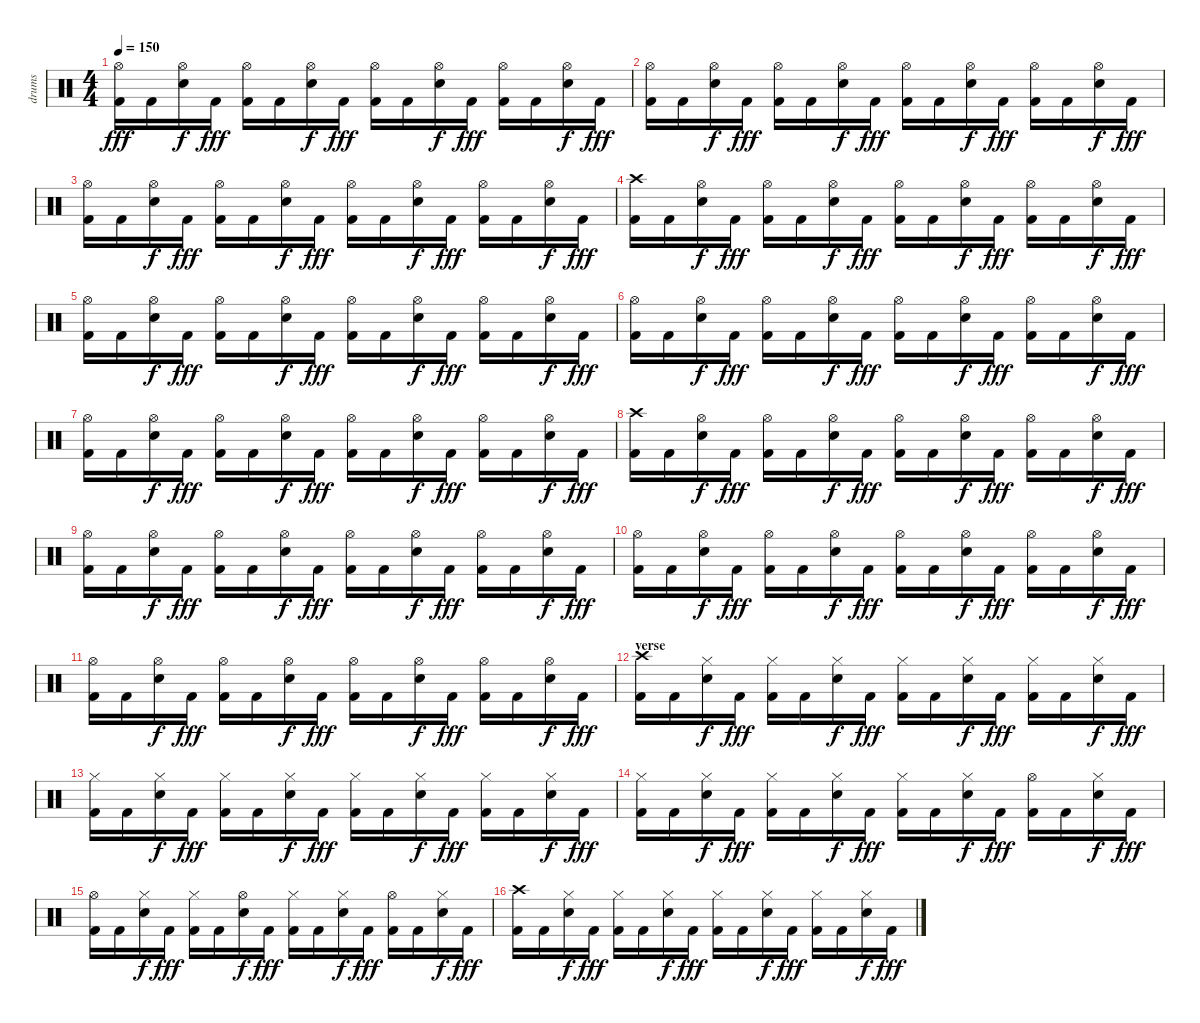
\track ("drums" "drums") {instrument percussion}
\staff {score}
\articulation defaults
\ts (4 4)
\tempo 150
\clef neutral
\ks c
("Hi-Hat (open)" "Kick (hit) 2").16{dy fff} "Kick (hit) 2".16 ("Hi-Hat (open)" "Snare (hit) 2").16{dy f} "Kick (hit) 2".16{dy fff} ("Hi-Hat (open)" "Kick (hit) 2").16 "Kick (hit) 2".16 ("Hi-Hat (open)" "Snare (hit) 2").16{dy f} "Kick (hit) 2".16{dy fff} ("Hi-Hat (open)" "Kick (hit) 2").16 "Kick (hit) 2".16 ("Hi-Hat (open)" "Snare (hit) 2").16{dy f} "Kick (hit) 2".16{dy fff} ("Hi-Hat (open)" "Kick (hit) 2").16 "Kick (hit) 2".16 ("Hi-Hat (open)" "Snare (hit) 2").16{dy f} "Kick (hit) 2".16{dy fff} |
("Hi-Hat (open)" "Kick (hit) 2").16 "Kick (hit) 2".16 ("Hi-Hat (open)" "Snare (hit) 2").16{dy f} "Kick (hit) 2".16{dy fff} ("Hi-Hat (open)" "Kick (hit) 2").16 "Kick (hit) 2".16 ("Hi-Hat (open)" "Snare (hit) 2").16{dy f} "Kick (hit) 2".16{dy fff} ("Hi-Hat (open)" "Kick (hit) 2").16 "Kick (hit) 2".16 ("Hi-Hat (open)" "Snare (hit) 2").16{dy f} "Kick (hit) 2".16{dy fff} ("Hi-Hat (open)" "Kick (hit) 2").16 "Kick (hit) 2".16 ("Hi-Hat (open)" "Snare (hit) 2").16{dy f} "Kick (hit) 2".16{dy fff} |
("Hi-Hat (open)" "Kick (hit) 2").16 "Kick (hit) 2".16 ("Hi-Hat (open)" "Snare (hit) 2").16{dy f} "Kick (hit) 2".16{dy fff} ("Hi-Hat (open)" "Kick (hit) 2").16 "Kick (hit) 2".16 ("Hi-Hat (open)" "Snare (hit) 2").16{dy f} "Kick (hit) 2".16{dy fff} ("Hi-Hat (open)" "Kick (hit) 2").16 "Kick (hit) 2".16 ("Hi-Hat (open)" "Snare (hit) 2").16{dy f} "Kick (hit) 2".16{dy fff} ("Hi-Hat (open)" "Kick (hit) 2").16 "Kick (hit) 2".16 ("Hi-Hat (open)" "Snare (hit) 2").16{dy f} "Kick (hit) 2".16{dy fff} |
("Crash high (hit)" "Kick (hit) 2").16 "Kick (hit) 2".16 ("Hi-Hat (open)" "Snare (hit) 2").16{dy f} "Kick (hit) 2".16{dy fff} ("Hi-Hat (open)" "Kick (hit) 2").16 "Kick (hit) 2".16 ("Hi-Hat (open)" "Snare (hit) 2").16{dy f} "Kick (hit) 2".16{dy fff} ("Hi-Hat (open)" "Kick (hit) 2").16 "Kick (hit) 2".16 ("Hi-Hat (open)" "Snare (hit) 2").16{dy f} "Kick (hit) 2".16{dy fff} ("Hi-Hat (open)" "Kick (hit) 2").16 "Kick (hit) 2".16 ("Hi-Hat (open)" "Snare (hit) 2").16{dy f} "Kick (hit) 2".16{dy fff} |
("Hi-Hat (open)" "Kick (hit) 2").16 "Kick (hit) 2".16 ("Hi-Hat (open)" "Snare (hit) 2").16{dy f} "Kick (hit) 2".16{dy fff} ("Hi-Hat (open)" "Kick (hit) 2").16 "Kick (hit) 2".16 ("Hi-Hat (open)" "Snare (hit) 2").16{dy f} "Kick (hit) 2".16{dy fff} ("Hi-Hat (open)" "Kick (hit) 2").16 "Kick (hit) 2".16 ("Hi-Hat (open)" "Snare (hit) 2").16{dy f} "Kick (hit) 2".16{dy fff} ("Hi-Hat (open)" "Kick (hit) 2").16 "Kick (hit) 2".16 ("Hi-Hat (open)" "Snare (hit) 2").16{dy f} "Kick (hit) 2".16{dy fff} |
("Hi-Hat (open)" "Kick (hit) 2").16 "Kick (hit) 2".16 ("Hi-Hat (open)" "Snare (hit) 2").16{dy f} "Kick (hit) 2".16{dy fff} ("Hi-Hat (open)" "Kick (hit) 2").16 "Kick (hit) 2".16 ("Hi-Hat (open)" "Snare (hit) 2").16{dy f} "Kick (hit) 2".16{dy fff} ("Hi-Hat (open)" "Kick (hit) 2").16 "Kick (hit) 2".16 ("Hi-Hat (open)" "Snare (hit) 2").16{dy f} "Kick (hit) 2".16{dy fff} ("Hi-Hat (open)" "Kick (hit) 2").16 "Kick (hit) 2".16 ("Hi-Hat (open)" "Snare (hit) 2").16{dy f} "Kick (hit) 2".16{dy fff} |
("Hi-Hat (open)" "Kick (hit) 2").16 "Kick (hit) 2".16 ("Hi-Hat (open)" "Snare (hit) 2").16{dy f} "Kick (hit) 2".16{dy fff} ("Hi-Hat (open)" "Kick (hit) 2").16 "Kick (hit) 2".16 ("Hi-Hat (open)" "Snare (hit) 2").16{dy f} "Kick (hit) 2".16{dy fff} ("Hi-Hat (open)" "Kick (hit) 2").16 "Kick (hit) 2".16 ("Hi-Hat (open)" "Snare (hit) 2").16{dy f} "Kick (hit) 2".16{dy fff} ("Hi-Hat (open)" "Kick (hit) 2").16 "Kick (hit) 2".16 ("Hi-Hat (open)" "Snare (hit) 2").16{dy f} "Kick (hit) 2".16{dy fff} |
("Crash high (hit)" "Kick (hit) 2").16 "Kick (hit) 2".16 ("Hi-Hat (open)" "Snare (hit) 2").16{dy f} "Kick (hit) 2".16{dy fff} ("Hi-Hat (open)" "Kick (hit) 2").16 "Kick (hit) 2".16 ("Hi-Hat (open)" "Snare (hit) 2").16{dy f} "Kick (hit) 2".16{dy fff} ("Hi-Hat (open)" "Kick (hit) 2").16 "Kick (hit) 2".16 ("Hi-Hat (open)" "Snare (hit) 2").16{dy f} "Kick (hit) 2".16{dy fff} ("Hi-Hat (open)" "Kick (hit) 2").16 "Kick (hit) 2".16 ("Hi-Hat (open)" "Snare (hit) 2").16{dy f} "Kick (hit) 2".16{dy fff} |
("Hi-Hat (open)" "Kick (hit) 2").16 "Kick (hit) 2".16 ("Hi-Hat (open)" "Snare (hit) 2").16{dy f} "Kick (hit) 2".16{dy fff} ("Hi-Hat (open)" "Kick (hit) 2").16 "Kick (hit) 2".16 ("Hi-Hat (open)" "Snare (hit) 2").16{dy f} "Kick (hit) 2".16{dy fff} ("Hi-Hat (open)" "Kick (hit) 2").16 "Kick (hit) 2".16 ("Hi-Hat (open)" "Snare (hit) 2").16{dy f} "Kick (hit) 2".16{dy fff} ("Hi-Hat (open)" "Kick (hit) 2").16 "Kick (hit) 2".16 ("Hi-Hat (open)" "Snare (hit) 2").16{dy f} "Kick (hit) 2".16{dy fff} |
("Hi-Hat (open)" "Kick (hit) 2").16 "Kick (hit) 2".16 ("Hi-Hat (open)" "Snare (hit) 2").16{dy f} "Kick (hit) 2".16{dy fff} ("Hi-Hat (open)" "Kick (hit) 2").16 "Kick (hit) 2".16 ("Hi-Hat (open)" "Snare (hit) 2").16{dy f} "Kick (hit) 2".16{dy fff} ("Hi-Hat (open)" "Kick (hit) 2").16 "Kick (hit) 2".16 ("Hi-Hat (open)" "Snare (hit) 2").16{dy f} "Kick (hit) 2".16{dy fff} ("Hi-Hat (open)" "Kick (hit) 2").16 "Kick (hit) 2".16 ("Hi-Hat (open)" "Snare (hit) 2").16{dy f} "Kick (hit) 2".16{dy fff} |
("Hi-Hat (open)" "Kick (hit) 2").16 "Kick (hit) 2".16 ("Hi-Hat (open)" "Snare (hit) 2").16{dy f} "Kick (hit) 2".16{dy fff} ("Hi-Hat (open)" "Kick (hit) 2").16 "Kick (hit) 2".16 ("Hi-Hat (open)" "Snare (hit) 2").16{dy f} "Kick (hit) 2".16{dy fff} ("Hi-Hat (open)" "Kick (hit) 2").16 "Kick (hit) 2".16 ("Hi-Hat (open)" "Snare (hit) 2").16{dy f} "Kick (hit) 2".16{dy fff} ("Hi-Hat (open)" "Kick (hit) 2").16 "Kick (hit) 2".16 ("Hi-Hat (open)" "Snare (hit) 2").16{dy f} "Kick (hit) 2".16{dy fff} |
\section ("" "verse")
("Crash high (hit)" "Kick (hit) 2").16 "Kick (hit) 2".16 ("Hi-Hat (closed)" "Snare (hit) 2").16{dy f} "Kick (hit) 2".16{dy fff} ("Hi-Hat (closed)" "Kick (hit) 2").16 "Kick (hit) 2".16 ("Hi-Hat (closed)" "Snare (hit) 2").16{dy f} "Kick (hit) 2".16{dy fff} ("Hi-Hat (closed)" "Kick (hit) 2").16 "Kick (hit) 2".16 ("Hi-Hat (closed)" "Snare (hit) 2").16{dy f} "Kick (hit) 2".16{dy fff} ("Hi-Hat (closed)" "Kick (hit) 2").16 "Kick (hit) 2".16 ("Hi-Hat (closed)" "Snare (hit) 2").16{dy f} "Kick (hit) 2".16{dy fff} |
("Hi-Hat (closed)" "Kick (hit) 2").16 "Kick (hit) 2".16 ("Hi-Hat (closed)" "Snare (hit) 2").16{dy f} "Kick (hit) 2".16{dy fff} ("Hi-Hat (closed)" "Kick (hit) 2").16 "Kick (hit) 2".16 ("Hi-Hat (closed)" "Snare (hit) 2").16{dy f} "Kick (hit) 2".16{dy fff} ("Hi-Hat (closed)" "Kick (hit) 2").16 "Kick (hit) 2".16 ("Hi-Hat (closed)" "Snare (hit) 2").16{dy f} "Kick (hit) 2".16{dy fff} ("Hi-Hat (closed)" "Kick (hit) 2").16 "Kick (hit) 2".16 ("Hi-Hat (closed)" "Snare (hit) 2").16{dy f} "Kick (hit) 2".16{dy fff} |
("Hi-Hat (closed)" "Kick (hit) 2").16 "Kick (hit) 2".16 ("Hi-Hat (closed)" "Snare (hit) 2").16{dy f} "Kick (hit) 2".16{dy fff} ("Hi-Hat (closed)" "Kick (hit) 2").16 "Kick (hit) 2".16 ("Hi-Hat (closed)" "Snare (hit) 2").16{dy f} "Kick (hit) 2".16{dy fff} ("Hi-Hat (closed)" "Kick (hit) 2").16 "Kick (hit) 2".16 ("Hi-Hat (closed)" "Snare (hit) 2").16{dy f} "Kick (hit) 2".16{dy fff} ("Hi-Hat (open)" "Kick (hit) 2").16 "Kick (hit) 2".16 ("Hi-Hat (closed)" "Snare (hit) 2").16{dy f} "Kick (hit) 2".16{dy fff} |
("Hi-Hat (open)" "Kick (hit) 2").16 "Kick (hit) 2".16 ("Hi-Hat (closed)" "Snare (hit) 2").16{dy f} "Kick (hit) 2".16{dy fff} ("Hi-Hat (closed)" "Kick (hit) 2").16 "Kick (hit) 2".16 ("Hi-Hat (open)" "Snare (hit) 2").16{dy f} "Kick (hit) 2".16{dy fff} ("Hi-Hat (closed)" "Kick (hit) 2").16 "Kick (hit) 2".16 ("Hi-Hat (closed)" "Snare (hit) 2").16{dy f} "Kick (hit) 2".16{dy fff} ("Hi-Hat (open)" "Kick (hit) 2").16 "Kick (hit) 2".16 ("Hi-Hat (closed)" "Snare (hit) 2").16{dy f} "Kick (hit) 2".16{dy fff} |
("Crash high (hit)" "Kick (hit) 2").16 "Kick (hit) 2".16 ("Hi-Hat (closed)" "Snare (hit) 2").16{dy f} "Kick (hit) 2".16{dy fff} ("Hi-Hat (closed)" "Kick (hit) 2").16 "Kick (hit) 2".16 ("Hi-Hat (closed)" "Snare (hit) 2").16{dy f} "Kick (hit) 2".16{dy fff} ("Hi-Hat (closed)" "Kick (hit) 2").16 "Kick (hit) 2".16 ("Hi-Hat (closed)" "Snare (hit) 2").16{dy f} "Kick (hit) 2".16{dy fff} ("Hi-Hat (closed)" "Kick (hit) 2").16 "Kick (hit) 2".16 ("Hi-Hat (closed)" "Snare (hit) 2").16{dy f} "Kick (hit) 2".16{dy fff}
